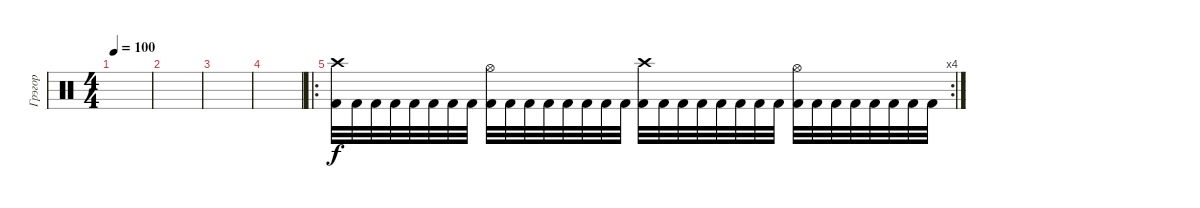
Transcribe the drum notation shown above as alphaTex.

\track ("Грэгор" "Грэгор") {instrument percussion}
\staff {score}
\articulation defaults
\ts (4 4)
\tempo 100
\clef neutral
\ks c
|
|
|
|
\ro
\rc 4
("Crash high (hit)" "Kick (hit) 2").32 "Kick (hit) 2".32 "Kick (hit) 2".32 "Kick (hit) 2".32 "Kick (hit) 2".32 "Kick (hit) 2".32 "Kick (hit) 2".32 "Kick (hit) 2".32 ("Hi-Hat (open)" "Kick (hit) 2").32 "Kick (hit) 2".32 "Kick (hit) 2".32 "Kick (hit) 2".32 "Kick (hit) 2".32 "Kick (hit) 2".32 "Kick (hit) 2".32 "Kick (hit) 2".32 ("Crash high (hit)" "Kick (hit) 2").32 "Kick (hit) 2".32 "Kick (hit) 2".32 "Kick (hit) 2".32 "Kick (hit) 2".32 "Kick (hit) 2".32 "Kick (hit) 2".32 "Kick (hit) 2".32 ("Hi-Hat (open)" "Kick (hit) 2").32 "Kick (hit) 2".32 "Kick (hit) 2".32 "Kick (hit) 2".32 "Kick (hit) 2".32 "Kick (hit) 2".32 "Kick (hit) 2".32 "Kick (hit) 2".32
